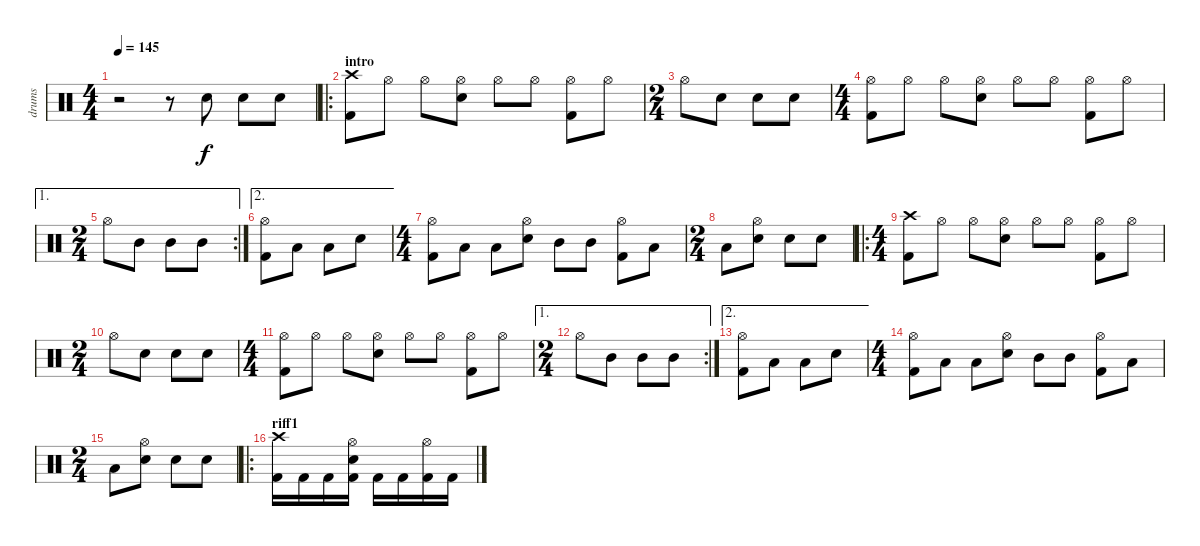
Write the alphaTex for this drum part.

\track ("drums" "drums") {instrument percussion}
\staff {score}
\articulation defaults
\ts (4 4)
\tempo 145
\clef neutral
\ks c
r.2{dy f} r.8 "Snare (hit) 2".8 "Snare (hit) 2".8 "Snare (hit) 2".8 |
\ro
\section ("" "intro")
("Crash high (hit)" "Kick (hit) 2").8 "Hi-Hat (open)".8 "Hi-Hat (open)".8 ("Snare (hit) 2" "Hi-Hat (open)").8 "Hi-Hat (open)".8 "Hi-Hat (open)".8 ("Kick (hit) 2" "Hi-Hat (open)").8 "Hi-Hat (open)".8 |
\ts (2 4)
"Hi-Hat (open)".8 "Snare (hit) 2".8 "Snare (hit) 2".8 "Snare (hit) 2".8 |
\ts (4 4)
("Kick (hit) 2" "Hi-Hat (open)").8 "Hi-Hat (open)".8 "Hi-Hat (open)".8 ("Snare (hit) 2" "Hi-Hat (open)").8 "Hi-Hat (open)".8 "Hi-Hat (open)".8 ("Kick (hit) 2" "Hi-Hat (open)").8 "Hi-Hat (open)".8 |
\ae 1
\rc 2
\ts (2 4)
"Hi-Hat (open)".8 "Mid Tom (hit)".8 "Mid Tom (hit)".8 "Mid Tom (hit)".8 |
\ae 2
("Kick (hit) 2" "Hi-Hat (open)").8 "Low Tom (hit)".8 "Low Tom (hit)".8 "Snare (hit) 2".8 |
\ts (4 4)
("Kick (hit) 2" "Hi-Hat (open)").8 "Low Tom (hit)".8 "Low Tom (hit)".8 ("Snare (hit) 2" "Hi-Hat (open)").8 "Mid Tom (hit)".8 "Mid Tom (hit)".8 ("Kick (hit) 2" "Hi-Hat (open)").8 "Low Tom (hit)".8 |
\ts (2 4)
"Low Tom (hit)".8 ("Snare (hit) 2" "Hi-Hat (open)").8 "Snare (hit) 2".8 "Snare (hit) 2".8 |
\ro
\ts (4 4)
("Crash high (hit)" "Kick (hit) 2").8 "Hi-Hat (open)".8 "Hi-Hat (open)".8 ("Snare (hit) 2" "Hi-Hat (open)").8 "Hi-Hat (open)".8 "Hi-Hat (open)".8 ("Kick (hit) 2" "Hi-Hat (open)").8 "Hi-Hat (open)".8 |
\ts (2 4)
"Hi-Hat (open)".8 "Snare (hit) 2".8 "Snare (hit) 2".8 "Snare (hit) 2".8 |
\ts (4 4)
("Kick (hit) 2" "Hi-Hat (open)").8 "Hi-Hat (open)".8 "Hi-Hat (open)".8 ("Snare (hit) 2" "Hi-Hat (open)").8 "Hi-Hat (open)".8 "Hi-Hat (open)".8 ("Kick (hit) 2" "Hi-Hat (open)").8 "Hi-Hat (open)".8 |
\ae 1
\rc 2
\ts (2 4)
"Hi-Hat (open)".8 "Mid Tom (hit)".8 "Mid Tom (hit)".8 "Mid Tom (hit)".8 |
\ae 2
("Kick (hit) 2" "Hi-Hat (open)").8 "Low Tom (hit)".8 "Low Tom (hit)".8 "Snare (hit) 2".8 |
\ts (4 4)
("Kick (hit) 2" "Hi-Hat (open)").8 "Low Tom (hit)".8 "Low Tom (hit)".8 ("Snare (hit) 2" "Hi-Hat (open)").8 "Mid Tom (hit)".8 "Mid Tom (hit)".8 ("Kick (hit) 2" "Hi-Hat (open)").8 "Low Tom (hit)".8 |
\ts (2 4)
"Low Tom (hit)".8 ("Snare (hit) 2" "Hi-Hat (open)").8 "Snare (hit) 2".8 "Snare (hit) 2".8 |
\ro
\section ("" "riff1")
("Crash high (hit)" "Kick (hit) 2").16 "Kick (hit) 2".16 "Kick (hit) 2".16 ("Snare (hit) 2" "Kick (hit) 2" "Hi-Hat (open)").16 "Kick (hit) 2".16 "Kick (hit) 2".16 ("Kick (hit) 2" "Hi-Hat (open)").16 "Kick (hit) 2".16
